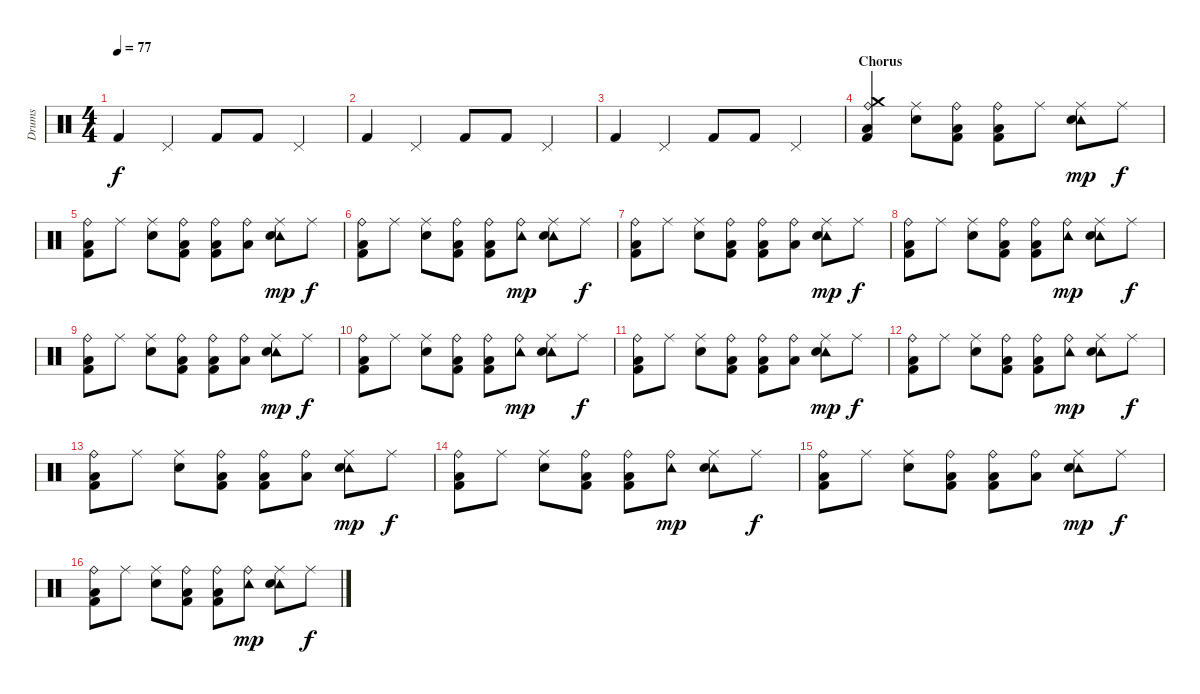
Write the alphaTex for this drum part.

\track ("Drums" "Drums") {instrument percussion}
\staff {score}
\articulation defaults
\ts (4 4)
\tempo 77
\clef neutral
\ks c "Kick (hit) 2".4{dy f} "Pedal Hi-Hat (hit)".4 "Kick (hit) 2".8 "Kick (hit) 2".8 "Pedal Hi-Hat (hit)".4
|
"Kick (hit) 2".4 "Pedal Hi-Hat (hit)".4 "Kick (hit) 2".8 "Kick (hit) 2".8 "Pedal Hi-Hat (hit)".4 |
"Kick (hit) 2".4 "Pedal Hi-Hat (hit)".4 "Kick (hit) 2".8 "Kick (hit) 2".8 "Pedal Hi-Hat (hit)".4 |
\section ("" "Chorus")
("Crash medium (hit)" "Ride (bell)" "Low Floor Tom (hit)" "Kick (hit) 2").4 ("Ride (middle)" "Snare (hit) 2").8 ("Ride (bell)" "Low Floor Tom (hit)" "Kick (hit) 2").8 ("Ride (bell)" "Low Floor Tom (hit)" "Kick (hit) 2").8 "Ride (middle)".8 ("Tambourine (hit)" "Ride (middle)" "Snare (hit) 2").8{dy mp} "Ride (middle)".8{dy f} |
("Ride (bell)" "Low Floor Tom (hit)" "Kick (hit) 2").8 "Ride (middle)".8 ("Ride (middle)" "Snare (hit) 2").8 ("Ride (bell)" "Low Floor Tom (hit)" "Kick (hit) 2").8 ("Ride (bell)" "Low Floor Tom (hit)" "Kick (hit) 2").8 ("Ride (bell)" "Low Floor Tom (hit)").8 ("Tambourine (hit)" "Ride (middle)" "Snare (hit) 2").8{dy mp} "Ride (middle)".8{dy f} |
("Ride (bell)" "Low Floor Tom (hit)" "Kick (hit) 2").8 "Ride (middle)".8 ("Ride (middle)" "Snare (hit) 2").8 ("Ride (bell)" "Low Floor Tom (hit)" "Kick (hit) 2").8 ("Ride (bell)" "Low Floor Tom (hit)" "Kick (hit) 2").8 ("Tambourine (hit)" "Ride (bell)").8{dy mp} ("Tambourine (hit)" "Ride (middle)" "Snare (hit) 2").8 "Ride (middle)".8{dy f} |
("Ride (bell)" "Low Floor Tom (hit)" "Kick (hit) 2").8 "Ride (middle)".8 ("Ride (middle)" "Snare (hit) 2").8 ("Ride (bell)" "Low Floor Tom (hit)" "Kick (hit) 2").8 ("Ride (bell)" "Low Floor Tom (hit)" "Kick (hit) 2").8 ("Ride (bell)" "Low Floor Tom (hit)").8 ("Tambourine (hit)" "Ride (middle)" "Snare (hit) 2").8{dy mp} "Ride (middle)".8{dy f} |
("Ride (bell)" "Low Floor Tom (hit)" "Kick (hit) 2").8 "Ride (middle)".8 ("Ride (middle)" "Snare (hit) 2").8 ("Ride (bell)" "Low Floor Tom (hit)" "Kick (hit) 2").8 ("Ride (bell)" "Low Floor Tom (hit)" "Kick (hit) 2").8 ("Tambourine (hit)" "Ride (bell)").8{dy mp} ("Tambourine (hit)" "Ride (middle)" "Snare (hit) 2").8 "Ride (middle)".8{dy f} |
("Ride (bell)" "Low Floor Tom (hit)" "Kick (hit) 2").8 "Ride (middle)".8 ("Ride (middle)" "Snare (hit) 2").8 ("Ride (bell)" "Low Floor Tom (hit)" "Kick (hit) 2").8 ("Ride (bell)" "Low Floor Tom (hit)" "Kick (hit) 2").8 ("Ride (bell)" "Low Floor Tom (hit)").8 ("Tambourine (hit)" "Ride (middle)" "Snare (hit) 2").8{dy mp} "Ride (middle)".8{dy f} |
("Ride (bell)" "Low Floor Tom (hit)" "Kick (hit) 2").8 "Ride (middle)".8 ("Ride (middle)" "Snare (hit) 2").8 ("Ride (bell)" "Low Floor Tom (hit)" "Kick (hit) 2").8 ("Ride (bell)" "Low Floor Tom (hit)" "Kick (hit) 2").8 ("Tambourine (hit)" "Ride (bell)").8{dy mp} ("Tambourine (hit)" "Ride (middle)" "Snare (hit) 2").8 "Ride (middle)".8{dy f} |
("Ride (bell)" "Low Floor Tom (hit)" "Kick (hit) 2").8 "Ride (middle)".8 ("Ride (middle)" "Snare (hit) 2").8 ("Ride (bell)" "Low Floor Tom (hit)" "Kick (hit) 2").8 ("Ride (bell)" "Low Floor Tom (hit)" "Kick (hit) 2").8 ("Ride (bell)" "Low Floor Tom (hit)").8 ("Tambourine (hit)" "Ride (middle)" "Snare (hit) 2").8{dy mp} "Ride (middle)".8{dy f} |
("Ride (bell)" "Low Floor Tom (hit)" "Kick (hit) 2").8 "Ride (middle)".8 ("Ride (middle)" "Snare (hit) 2").8 ("Ride (bell)" "Low Floor Tom (hit)" "Kick (hit) 2").8 ("Ride (bell)" "Low Floor Tom (hit)" "Kick (hit) 2").8 ("Tambourine (hit)" "Ride (bell)").8{dy mp} ("Tambourine (hit)" "Ride (middle)" "Snare (hit) 2").8 "Ride (middle)".8{dy f} |
("Ride (bell)" "Low Floor Tom (hit)" "Kick (hit) 2").8 "Ride (middle)".8 ("Ride (middle)" "Snare (hit) 2").8 ("Ride (bell)" "Low Floor Tom (hit)" "Kick (hit) 2").8 ("Ride (bell)" "Low Floor Tom (hit)" "Kick (hit) 2").8 ("Ride (bell)" "Low Floor Tom (hit)").8 ("Tambourine (hit)" "Ride (middle)" "Snare (hit) 2").8{dy mp} "Ride (middle)".8{dy f} |
("Ride (bell)" "Low Floor Tom (hit)" "Kick (hit) 2").8 "Ride (middle)".8 ("Ride (middle)" "Snare (hit) 2").8 ("Ride (bell)" "Low Floor Tom (hit)" "Kick (hit) 2").8 ("Ride (bell)" "Low Floor Tom (hit)" "Kick (hit) 2").8 ("Tambourine (hit)" "Ride (bell)").8{dy mp} ("Tambourine (hit)" "Ride (middle)" "Snare (hit) 2").8 "Ride (middle)".8{dy f} |
("Ride (bell)" "Low Floor Tom (hit)" "Kick (hit) 2").8 "Ride (middle)".8 ("Ride (middle)" "Snare (hit) 2").8 ("Ride (bell)" "Low Floor Tom (hit)" "Kick (hit) 2").8 ("Ride (bell)" "Low Floor Tom (hit)" "Kick (hit) 2").8 ("Ride (bell)" "Low Floor Tom (hit)").8 ("Tambourine (hit)" "Ride (middle)" "Snare (hit) 2").8{dy mp} "Ride (middle)".8{dy f} |
("Ride (bell)" "Low Floor Tom (hit)" "Kick (hit) 2").8 "Ride (middle)".8 ("Ride (middle)" "Snare (hit) 2").8 ("Ride (bell)" "Low Floor Tom (hit)" "Kick (hit) 2").8 ("Ride (bell)" "Low Floor Tom (hit)" "Kick (hit) 2").8 ("Tambourine (hit)" "Ride (bell)").8{dy mp} ("Tambourine (hit)" "Ride (middle)" "Snare (hit) 2").8 "Ride (middle)".8{dy f}
